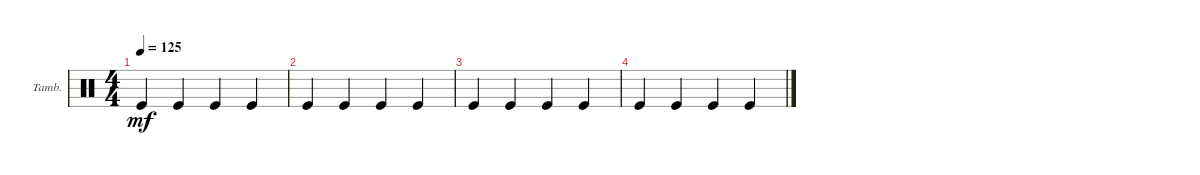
\defaultSystemsLayout 4
\bracketExtendMode groupsimilarinstruments
\firstSystemTrackNameOrientation horizontal
\otherSystemsTrackNameOrientation horizontal
\track ("Tambourine" "Tamb.") {instrument percussion}
\staff {score}
\articulation defaults
\ts (4 4)
\tempo 125
\clef neutral
\scale
0.333333
\ks c "Kick (hit)".4{dy mf} "Kick (hit)".4 "Kick (hit)".4 "Kick (hit)".4
|
\scale
0.333333 "Kick (hit)".4 "Kick (hit)".4 "Kick (hit)".4 "Kick (hit)".4 |
\scale
0.333333 "Kick (hit)".4 "Kick (hit)".4 "Kick (hit)".4 "Kick (hit)".4 |
\scale
0.333333 "Kick (hit)".4 "Kick (hit)".4 "Kick (hit)".4 "Kick (hit)".4 |
\scale
0.333333 |
\scale
0.333333 |
\scale
0.333333 |
\scale
0.333333 |
\scale
0.333333 |
\scale
0.333333
